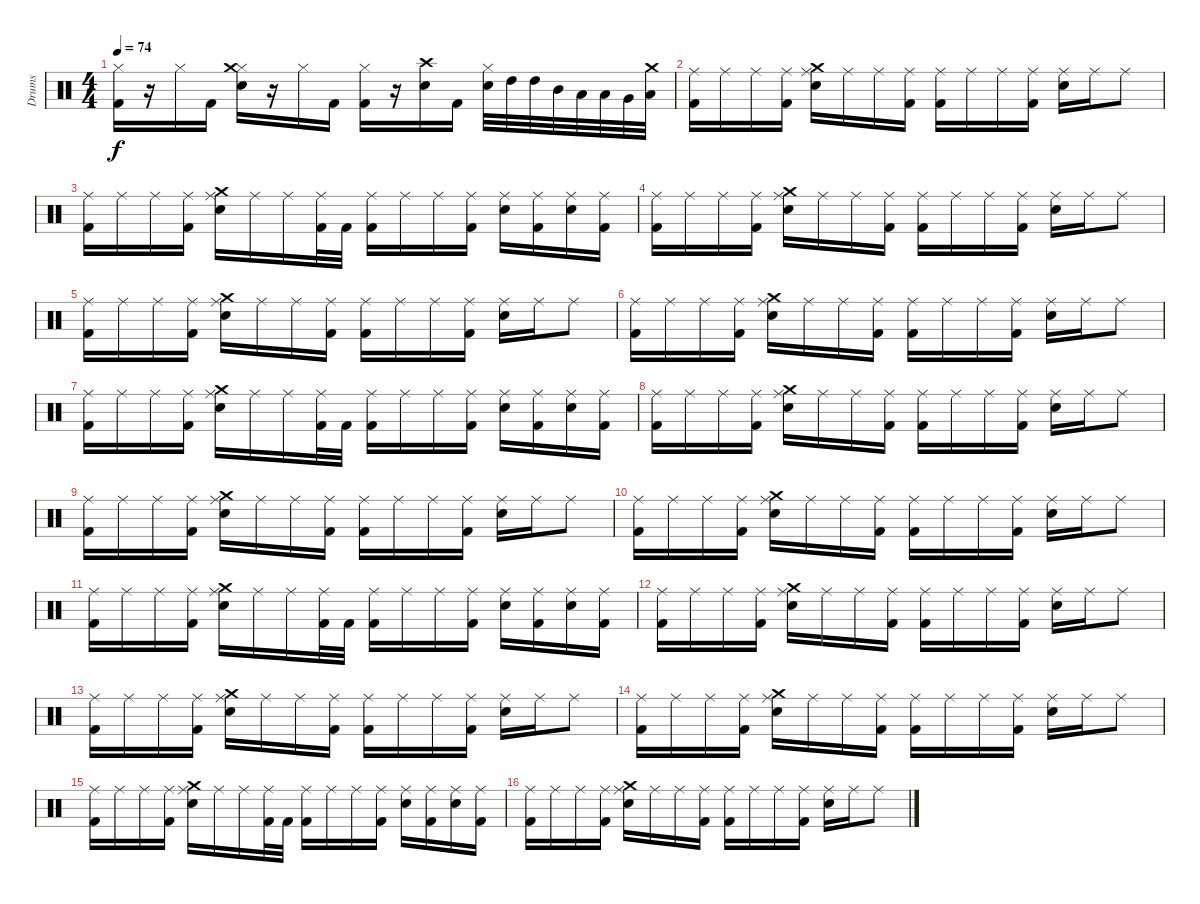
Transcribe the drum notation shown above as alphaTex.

\track ("Drums" "Drums") {instrument percussion}
\staff {score}
\articulation defaults
\ts (4 4)
\tempo 74
\clef neutral
\ks c
("Hi-Hat (closed)" "Kick (hit) 2").16{dy f} r.16 "Hi-Hat (closed)".16 "Kick (hit) 2".16 ("Hi-Hat (closed)" "Snare (hit) 2" "Crash medium (hit)").16 r.16 "Hi-Hat (closed)".16 "Kick (hit) 2".16 ("Hi-Hat (closed)" "Kick (hit) 2").16 r.16 ("Crash high (hit)" "Snare (hit) 2").16 "Kick (hit) 2".16 ("Hi-Hat (closed)" "Snare (hit) 2").32 "High Tom (hit)".32 "High Tom (hit)".32 "Mid Tom (hit)".32 "Low Tom (hit)".32 "Low Tom (hit)".32 "Very Low Tom (hit)".32 ("Crash medium (hit)" "Low Floor Tom (hit)").32 |
("Ride (middle)" "Kick (hit) 2").16 "Ride (middle)".16 "Ride (middle)".16 ("Ride (middle)" "Kick (hit) 2").16 ("Ride (middle)" "Snare (hit) 2" "Crash medium (hit)").16 "Ride (middle)".16 "Ride (middle)".16 ("Ride (middle)" "Kick (hit) 2").16 ("Ride (middle)" "Kick (hit) 2").16 "Ride (middle)".16 "Ride (middle)".16 ("Ride (middle)" "Kick (hit) 2").16 ("Ride (middle)" "Snare (hit) 2").16 "Ride (middle)".16 "Ride (middle)".8 |
("Ride (middle)" "Kick (hit) 2").16 "Ride (middle)".16 "Ride (middle)".16 ("Ride (middle)" "Kick (hit) 2").16 ("Ride (middle)" "Snare (hit) 2" "Crash medium (hit)").16 "Ride (middle)".16 "Ride (middle)".16 ("Ride (middle)" "Kick (hit) 2").32 "Kick (hit) 2".32 ("Ride (middle)" "Kick (hit) 2").16 "Ride (middle)".16 "Ride (middle)".16 ("Ride (middle)" "Kick (hit) 2").16 ("Ride (middle)" "Snare (hit) 2").16 ("Ride (middle)" "Kick (hit) 2").16 ("Ride (middle)" "Snare (hit) 2").16 ("Ride (middle)" "Kick (hit) 2").16 |
("Ride (middle)" "Kick (hit) 2").16 "Ride (middle)".16 "Ride (middle)".16 ("Ride (middle)" "Kick (hit) 2").16 ("Ride (middle)" "Snare (hit) 2" "Crash medium (hit)").16 "Ride (middle)".16 "Ride (middle)".16 ("Ride (middle)" "Kick (hit) 2").16 ("Ride (middle)" "Kick (hit) 2").16 "Ride (middle)".16 "Ride (middle)".16 ("Ride (middle)" "Kick (hit) 2").16 ("Ride (middle)" "Snare (hit) 2").16 "Ride (middle)".16 "Ride (middle)".8 |
("Ride (middle)" "Kick (hit) 2").16 "Ride (middle)".16 "Ride (middle)".16 ("Ride (middle)" "Kick (hit) 2").16 ("Ride (middle)" "Snare (hit) 2" "Crash medium (hit)").16 "Ride (middle)".16 "Ride (middle)".16 ("Ride (middle)" "Kick (hit) 2").16 ("Ride (middle)" "Kick (hit) 2").16 "Ride (middle)".16 "Ride (middle)".16 ("Ride (middle)" "Kick (hit) 2").16 ("Ride (middle)" "Snare (hit) 2").16 "Ride (middle)".16 "Ride (middle)".8 |
("Ride (middle)" "Kick (hit) 2").16 "Ride (middle)".16 "Ride (middle)".16 ("Ride (middle)" "Kick (hit) 2").16 ("Ride (middle)" "Snare (hit) 2" "Crash medium (hit)").16 "Ride (middle)".16 "Ride (middle)".16 ("Ride (middle)" "Kick (hit) 2").16 ("Ride (middle)" "Kick (hit) 2").16 "Ride (middle)".16 "Ride (middle)".16 ("Ride (middle)" "Kick (hit) 2").16 ("Ride (middle)" "Snare (hit) 2").16 "Ride (middle)".16 "Ride (middle)".8 |
("Ride (middle)" "Kick (hit) 2").16 "Ride (middle)".16 "Ride (middle)".16 ("Ride (middle)" "Kick (hit) 2").16 ("Ride (middle)" "Snare (hit) 2" "Crash medium (hit)").16 "Ride (middle)".16 "Ride (middle)".16 ("Ride (middle)" "Kick (hit) 2").32 "Kick (hit) 2".32 ("Ride (middle)" "Kick (hit) 2").16 "Ride (middle)".16 "Ride (middle)".16 ("Ride (middle)" "Kick (hit) 2").16 ("Ride (middle)" "Snare (hit) 2").16 ("Ride (middle)" "Kick (hit) 2").16 ("Ride (middle)" "Snare (hit) 2").16 ("Ride (middle)" "Kick (hit) 2").16 |
("Ride (middle)" "Kick (hit) 2").16 "Ride (middle)".16 "Ride (middle)".16 ("Ride (middle)" "Kick (hit) 2").16 ("Ride (middle)" "Snare (hit) 2" "Crash medium (hit)").16 "Ride (middle)".16 "Ride (middle)".16 ("Ride (middle)" "Kick (hit) 2").16 ("Ride (middle)" "Kick (hit) 2").16 "Ride (middle)".16 "Ride (middle)".16 ("Ride (middle)" "Kick (hit) 2").16 ("Ride (middle)" "Snare (hit) 2").16 "Ride (middle)".16 "Ride (middle)".8 |
("Ride (middle)" "Kick (hit) 2").16 "Ride (middle)".16 "Ride (middle)".16 ("Ride (middle)" "Kick (hit) 2").16 ("Ride (middle)" "Snare (hit) 2" "Crash medium (hit)").16 "Ride (middle)".16 "Ride (middle)".16 ("Ride (middle)" "Kick (hit) 2").16 ("Ride (middle)" "Kick (hit) 2").16 "Ride (middle)".16 "Ride (middle)".16 ("Ride (middle)" "Kick (hit) 2").16 ("Ride (middle)" "Snare (hit) 2").16 "Ride (middle)".16 "Ride (middle)".8 |
("Ride (middle)" "Kick (hit) 2").16 "Ride (middle)".16 "Ride (middle)".16 ("Ride (middle)" "Kick (hit) 2").16 ("Ride (middle)" "Snare (hit) 2" "Crash medium (hit)").16 "Ride (middle)".16 "Ride (middle)".16 ("Ride (middle)" "Kick (hit) 2").16 ("Ride (middle)" "Kick (hit) 2").16 "Ride (middle)".16 "Ride (middle)".16 ("Ride (middle)" "Kick (hit) 2").16 ("Ride (middle)" "Snare (hit) 2").16 "Ride (middle)".16 "Ride (middle)".8 |
("Ride (middle)" "Kick (hit) 2").16 "Ride (middle)".16 "Ride (middle)".16 ("Ride (middle)" "Kick (hit) 2").16 ("Ride (middle)" "Snare (hit) 2" "Crash medium (hit)").16 "Ride (middle)".16 "Ride (middle)".16 ("Ride (middle)" "Kick (hit) 2").32 "Kick (hit) 2".32 ("Ride (middle)" "Kick (hit) 2").16 "Ride (middle)".16 "Ride (middle)".16 ("Ride (middle)" "Kick (hit) 2").16 ("Ride (middle)" "Snare (hit) 2").16 ("Ride (middle)" "Kick (hit) 2").16 ("Ride (middle)" "Snare (hit) 2").16 ("Ride (middle)" "Kick (hit) 2").16 |
("Ride (middle)" "Kick (hit) 2").16 "Ride (middle)".16 "Ride (middle)".16 ("Ride (middle)" "Kick (hit) 2").16 ("Ride (middle)" "Snare (hit) 2" "Crash medium (hit)").16 "Ride (middle)".16 "Ride (middle)".16 ("Ride (middle)" "Kick (hit) 2").16 ("Ride (middle)" "Kick (hit) 2").16 "Ride (middle)".16 "Ride (middle)".16 ("Ride (middle)" "Kick (hit) 2").16 ("Ride (middle)" "Snare (hit) 2").16 "Ride (middle)".16 "Ride (middle)".8 |
("Ride (middle)" "Kick (hit) 2").16 "Ride (middle)".16 "Ride (middle)".16 ("Ride (middle)" "Kick (hit) 2").16 ("Ride (middle)" "Snare (hit) 2" "Crash medium (hit)").16 "Ride (middle)".16 "Ride (middle)".16 ("Ride (middle)" "Kick (hit) 2").16 ("Ride (middle)" "Kick (hit) 2").16 "Ride (middle)".16 "Ride (middle)".16 ("Ride (middle)" "Kick (hit) 2").16 ("Ride (middle)" "Snare (hit) 2").16 "Ride (middle)".16 "Ride (middle)".8 |
("Ride (middle)" "Kick (hit) 2").16 "Ride (middle)".16 "Ride (middle)".16 ("Ride (middle)" "Kick (hit) 2").16 ("Ride (middle)" "Snare (hit) 2" "Crash medium (hit)").16 "Ride (middle)".16 "Ride (middle)".16 ("Ride (middle)" "Kick (hit) 2").16 ("Ride (middle)" "Kick (hit) 2").16 "Ride (middle)".16 "Ride (middle)".16 ("Ride (middle)" "Kick (hit) 2").16 ("Ride (middle)" "Snare (hit) 2").16 "Ride (middle)".16 "Ride (middle)".8 |
("Ride (middle)" "Kick (hit) 2").16 "Ride (middle)".16 "Ride (middle)".16 ("Ride (middle)" "Kick (hit) 2").16 ("Ride (middle)" "Snare (hit) 2" "Crash medium (hit)").16 "Ride (middle)".16 "Ride (middle)".16 ("Ride (middle)" "Kick (hit) 2").32 "Kick (hit) 2".32 ("Ride (middle)" "Kick (hit) 2").16 "Ride (middle)".16 "Ride (middle)".16 ("Ride (middle)" "Kick (hit) 2").16 ("Ride (middle)" "Snare (hit) 2").16 ("Ride (middle)" "Kick (hit) 2").16 ("Ride (middle)" "Snare (hit) 2").16 ("Ride (middle)" "Kick (hit) 2").16 |
("Ride (middle)" "Kick (hit) 2").16 "Ride (middle)".16 "Ride (middle)".16 ("Ride (middle)" "Kick (hit) 2").16 ("Ride (middle)" "Snare (hit) 2" "Crash medium (hit)").16 "Ride (middle)".16 "Ride (middle)".16 ("Ride (middle)" "Kick (hit) 2").16 ("Ride (middle)" "Kick (hit) 2").16 "Ride (middle)".16 "Ride (middle)".16 ("Ride (middle)" "Kick (hit) 2").16 ("Ride (middle)" "Snare (hit) 2").16 "Ride (middle)".16 "Ride (middle)".8
